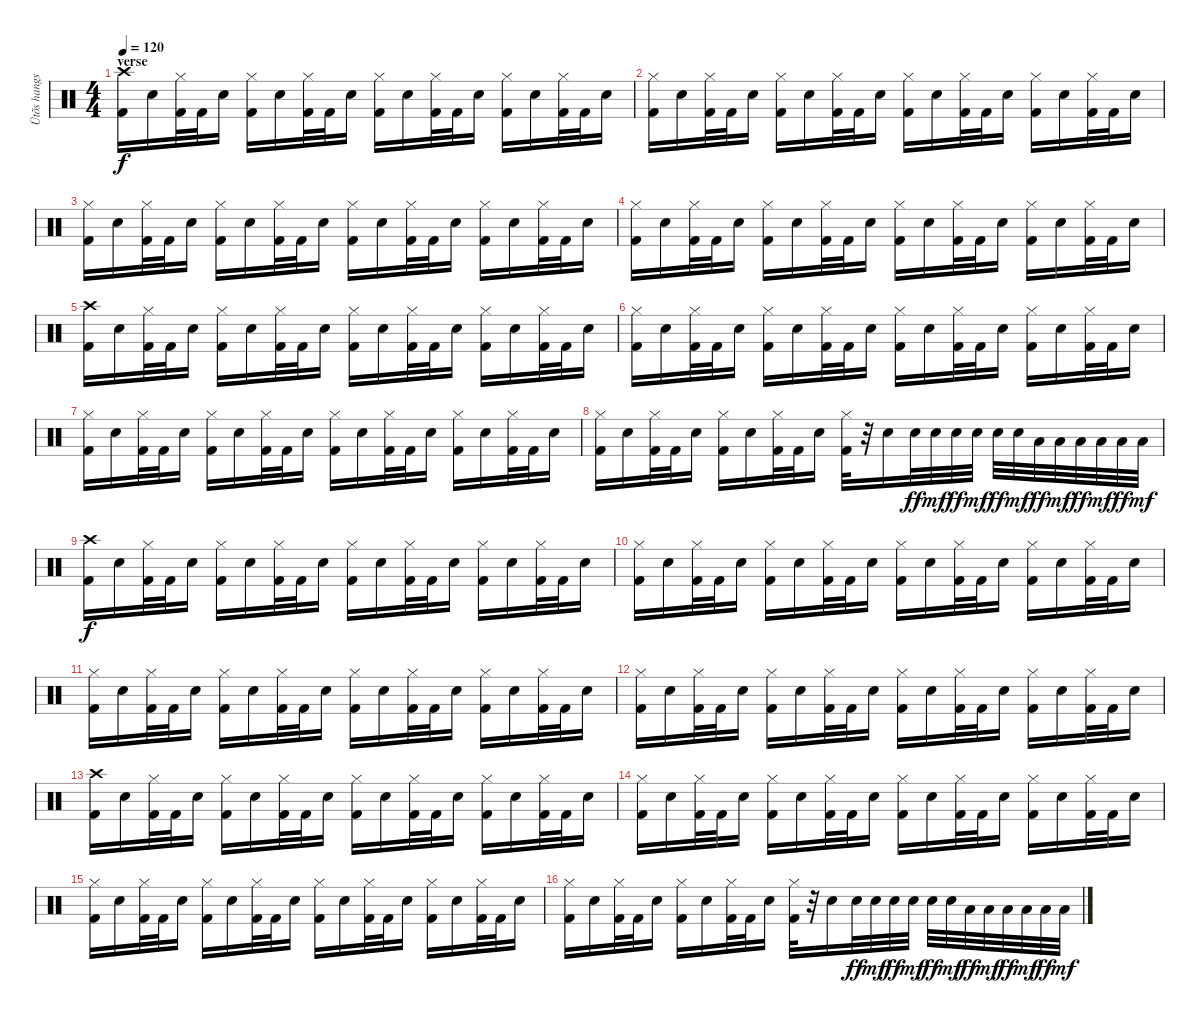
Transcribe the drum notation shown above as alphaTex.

\track ("Ütõs hangszer" "Ütõs hangs") {instrument percussion}
\staff {score}
\articulation defaults
\ts (4 4)
\section ("" "verse")
\tempo 120
\clef neutral
\ks c
("Crash high (hit)" "Kick (hit) 2").16{dy f} "Snare (hit) 2".16 ("Hi-Hat (closed)" "Kick (hit) 2").32 "Kick (hit) 2".32 "Snare (hit) 2".16 ("Hi-Hat (closed)" "Kick (hit) 2").16 "Snare (hit) 2".16 ("Hi-Hat (closed)" "Kick (hit) 2").32 "Kick (hit) 2".32 "Snare (hit) 2".16 ("Hi-Hat (closed)" "Kick (hit) 2").16 "Snare (hit) 2".16 ("Hi-Hat (closed)" "Kick (hit) 2").32 "Kick (hit) 2".32 "Snare (hit) 2".16 ("Hi-Hat (closed)" "Kick (hit) 2").16 "Snare (hit) 2".16 ("Hi-Hat (closed)" "Kick (hit) 2").32 "Kick (hit) 2".32 "Snare (hit) 2".16 |
("Hi-Hat (closed)" "Kick (hit) 2").16 "Snare (hit) 2".16 ("Hi-Hat (closed)" "Kick (hit) 2").32 "Kick (hit) 2".32 "Snare (hit) 2".16 ("Hi-Hat (closed)" "Kick (hit) 2").16 "Snare (hit) 2".16 ("Hi-Hat (closed)" "Kick (hit) 2").32 "Kick (hit) 2".32 "Snare (hit) 2".16 ("Hi-Hat (closed)" "Kick (hit) 2").16 "Snare (hit) 2".16 ("Hi-Hat (closed)" "Kick (hit) 2").32 "Kick (hit) 2".32 "Snare (hit) 2".16 ("Hi-Hat (closed)" "Kick (hit) 2").16 "Snare (hit) 2".16 ("Hi-Hat (closed)" "Kick (hit) 2").32 "Kick (hit) 2".32 "Snare (hit) 2".16 |
("Hi-Hat (closed)" "Kick (hit) 2").16 "Snare (hit) 2".16 ("Hi-Hat (closed)" "Kick (hit) 2").32 "Kick (hit) 2".32 "Snare (hit) 2".16 ("Hi-Hat (closed)" "Kick (hit) 2").16 "Snare (hit) 2".16 ("Hi-Hat (closed)" "Kick (hit) 2").32 "Kick (hit) 2".32 "Snare (hit) 2".16 ("Hi-Hat (closed)" "Kick (hit) 2").16 "Snare (hit) 2".16 ("Hi-Hat (closed)" "Kick (hit) 2").32 "Kick (hit) 2".32 "Snare (hit) 2".16 ("Hi-Hat (closed)" "Kick (hit) 2").16 "Snare (hit) 2".16 ("Hi-Hat (closed)" "Kick (hit) 2").32 "Kick (hit) 2".32 "Snare (hit) 2".16 |
("Hi-Hat (closed)" "Kick (hit) 2").16 "Snare (hit) 2".16 ("Hi-Hat (closed)" "Kick (hit) 2").32 "Kick (hit) 2".32 "Snare (hit) 2".16 ("Hi-Hat (closed)" "Kick (hit) 2").16 "Snare (hit) 2".16 ("Hi-Hat (closed)" "Kick (hit) 2").32 "Kick (hit) 2".32 "Snare (hit) 2".16 ("Hi-Hat (closed)" "Kick (hit) 2").16 "Snare (hit) 2".16 ("Hi-Hat (closed)" "Kick (hit) 2").32 "Kick (hit) 2".32 "Snare (hit) 2".16 ("Hi-Hat (closed)" "Kick (hit) 2").16 "Snare (hit) 2".16 ("Hi-Hat (closed)" "Kick (hit) 2").32 "Kick (hit) 2".32 "Snare (hit) 2".16 |
("Crash high (hit)" "Kick (hit) 2").16 "Snare (hit) 2".16 ("Hi-Hat (closed)" "Kick (hit) 2").32 "Kick (hit) 2".32 "Snare (hit) 2".16 ("Hi-Hat (closed)" "Kick (hit) 2").16 "Snare (hit) 2".16 ("Hi-Hat (closed)" "Kick (hit) 2").32 "Kick (hit) 2".32 "Snare (hit) 2".16 ("Hi-Hat (closed)" "Kick (hit) 2").16 "Snare (hit) 2".16 ("Hi-Hat (closed)" "Kick (hit) 2").32 "Kick (hit) 2".32 "Snare (hit) 2".16 ("Hi-Hat (closed)" "Kick (hit) 2").16 "Snare (hit) 2".16 ("Hi-Hat (closed)" "Kick (hit) 2").32 "Kick (hit) 2".32 "Snare (hit) 2".16 |
("Hi-Hat (closed)" "Kick (hit) 2").16 "Snare (hit) 2".16 ("Hi-Hat (closed)" "Kick (hit) 2").32 "Kick (hit) 2".32 "Snare (hit) 2".16 ("Hi-Hat (closed)" "Kick (hit) 2").16 "Snare (hit) 2".16 ("Hi-Hat (closed)" "Kick (hit) 2").32 "Kick (hit) 2".32 "Snare (hit) 2".16 ("Hi-Hat (closed)" "Kick (hit) 2").16 "Snare (hit) 2".16 ("Hi-Hat (closed)" "Kick (hit) 2").32 "Kick (hit) 2".32 "Snare (hit) 2".16 ("Hi-Hat (closed)" "Kick (hit) 2").16 "Snare (hit) 2".16 ("Hi-Hat (closed)" "Kick (hit) 2").32 "Kick (hit) 2".32 "Snare (hit) 2".16 |
("Hi-Hat (closed)" "Kick (hit) 2").16 "Snare (hit) 2".16 ("Hi-Hat (closed)" "Kick (hit) 2").32 "Kick (hit) 2".32 "Snare (hit) 2".16 ("Hi-Hat (closed)" "Kick (hit) 2").16 "Snare (hit) 2".16 ("Hi-Hat (closed)" "Kick (hit) 2").32 "Kick (hit) 2".32 "Snare (hit) 2".16 ("Hi-Hat (closed)" "Kick (hit) 2").16 "Snare (hit) 2".16 ("Hi-Hat (closed)" "Kick (hit) 2").32 "Kick (hit) 2".32 "Snare (hit) 2".16 ("Hi-Hat (closed)" "Kick (hit) 2").16 "Snare (hit) 2".16 ("Hi-Hat (closed)" "Kick (hit) 2").32 "Kick (hit) 2".32 "Snare (hit) 2".16 |
("Hi-Hat (closed)" "Kick (hit) 2").16 "Snare (hit) 2".16 ("Hi-Hat (closed)" "Kick (hit) 2").32 "Kick (hit) 2".32 "Snare (hit) 2".16 ("Hi-Hat (closed)" "Kick (hit) 2").16 "Snare (hit) 2".16 ("Hi-Hat (closed)" "Kick (hit) 2").32 "Kick (hit) 2".32 "Snare (hit) 2".16 ("Hi-Hat (closed)" "Kick (hit) 2").32 r.32 "Snare (hit) 2".16 "Snare (hit) 2".32{dy ff} "Snare (hit) 2".32{dy mf} "Snare (hit) 2".32{dy ff} "Snare (hit) 2".32{dy mf} "Snare (hit) 2".32{dy ff} "Snare (hit) 2".32{dy mf} "Low Tom (hit)".32{dy ff} "Low Tom (hit)".32{dy mf} "Low Tom (hit)".32{dy ff} "Low Tom (hit)".32{dy mf} "Low Tom (hit)".32{dy ff} "Low Tom (hit)".32{dy mf} |
("Crash high (hit)" "Kick (hit) 2").16{dy f} "Snare (hit) 2".16 ("Hi-Hat (closed)" "Kick (hit) 2").32 "Kick (hit) 2".32 "Snare (hit) 2".16 ("Hi-Hat (closed)" "Kick (hit) 2").16 "Snare (hit) 2".16 ("Hi-Hat (closed)" "Kick (hit) 2").32 "Kick (hit) 2".32 "Snare (hit) 2".16 ("Hi-Hat (closed)" "Kick (hit) 2").16 "Snare (hit) 2".16 ("Hi-Hat (closed)" "Kick (hit) 2").32 "Kick (hit) 2".32 "Snare (hit) 2".16 ("Hi-Hat (closed)" "Kick (hit) 2").16 "Snare (hit) 2".16 ("Hi-Hat (closed)" "Kick (hit) 2").32 "Kick (hit) 2".32 "Snare (hit) 2".16 |
("Hi-Hat (closed)" "Kick (hit) 2").16 "Snare (hit) 2".16 ("Hi-Hat (closed)" "Kick (hit) 2").32 "Kick (hit) 2".32 "Snare (hit) 2".16 ("Hi-Hat (closed)" "Kick (hit) 2").16 "Snare (hit) 2".16 ("Hi-Hat (closed)" "Kick (hit) 2").32 "Kick (hit) 2".32 "Snare (hit) 2".16 ("Hi-Hat (closed)" "Kick (hit) 2").16 "Snare (hit) 2".16 ("Hi-Hat (closed)" "Kick (hit) 2").32 "Kick (hit) 2".32 "Snare (hit) 2".16 ("Hi-Hat (closed)" "Kick (hit) 2").16 "Snare (hit) 2".16 ("Hi-Hat (closed)" "Kick (hit) 2").32 "Kick (hit) 2".32 "Snare (hit) 2".16 |
("Hi-Hat (closed)" "Kick (hit) 2").16 "Snare (hit) 2".16 ("Hi-Hat (closed)" "Kick (hit) 2").32 "Kick (hit) 2".32 "Snare (hit) 2".16 ("Hi-Hat (closed)" "Kick (hit) 2").16 "Snare (hit) 2".16 ("Hi-Hat (closed)" "Kick (hit) 2").32 "Kick (hit) 2".32 "Snare (hit) 2".16 ("Hi-Hat (closed)" "Kick (hit) 2").16 "Snare (hit) 2".16 ("Hi-Hat (closed)" "Kick (hit) 2").32 "Kick (hit) 2".32 "Snare (hit) 2".16 ("Hi-Hat (closed)" "Kick (hit) 2").16 "Snare (hit) 2".16 ("Hi-Hat (closed)" "Kick (hit) 2").32 "Kick (hit) 2".32 "Snare (hit) 2".16 |
("Hi-Hat (closed)" "Kick (hit) 2").16 "Snare (hit) 2".16 ("Hi-Hat (closed)" "Kick (hit) 2").32 "Kick (hit) 2".32 "Snare (hit) 2".16 ("Hi-Hat (closed)" "Kick (hit) 2").16 "Snare (hit) 2".16 ("Hi-Hat (closed)" "Kick (hit) 2").32 "Kick (hit) 2".32 "Snare (hit) 2".16 ("Hi-Hat (closed)" "Kick (hit) 2").16 "Snare (hit) 2".16 ("Hi-Hat (closed)" "Kick (hit) 2").32 "Kick (hit) 2".32 "Snare (hit) 2".16 ("Hi-Hat (closed)" "Kick (hit) 2").16 "Snare (hit) 2".16 ("Hi-Hat (closed)" "Kick (hit) 2").32 "Kick (hit) 2".32 "Snare (hit) 2".16 |
("Crash high (hit)" "Kick (hit) 2").16 "Snare (hit) 2".16 ("Hi-Hat (closed)" "Kick (hit) 2").32 "Kick (hit) 2".32 "Snare (hit) 2".16 ("Hi-Hat (closed)" "Kick (hit) 2").16 "Snare (hit) 2".16 ("Hi-Hat (closed)" "Kick (hit) 2").32 "Kick (hit) 2".32 "Snare (hit) 2".16 ("Hi-Hat (closed)" "Kick (hit) 2").16 "Snare (hit) 2".16 ("Hi-Hat (closed)" "Kick (hit) 2").32 "Kick (hit) 2".32 "Snare (hit) 2".16 ("Hi-Hat (closed)" "Kick (hit) 2").16 "Snare (hit) 2".16 ("Hi-Hat (closed)" "Kick (hit) 2").32 "Kick (hit) 2".32 "Snare (hit) 2".16 |
("Hi-Hat (closed)" "Kick (hit) 2").16 "Snare (hit) 2".16 ("Hi-Hat (closed)" "Kick (hit) 2").32 "Kick (hit) 2".32 "Snare (hit) 2".16 ("Hi-Hat (closed)" "Kick (hit) 2").16 "Snare (hit) 2".16 ("Hi-Hat (closed)" "Kick (hit) 2").32 "Kick (hit) 2".32 "Snare (hit) 2".16 ("Hi-Hat (closed)" "Kick (hit) 2").16 "Snare (hit) 2".16 ("Hi-Hat (closed)" "Kick (hit) 2").32 "Kick (hit) 2".32 "Snare (hit) 2".16 ("Hi-Hat (closed)" "Kick (hit) 2").16 "Snare (hit) 2".16 ("Hi-Hat (closed)" "Kick (hit) 2").32 "Kick (hit) 2".32 "Snare (hit) 2".16 |
("Hi-Hat (closed)" "Kick (hit) 2").16 "Snare (hit) 2".16 ("Hi-Hat (closed)" "Kick (hit) 2").32 "Kick (hit) 2".32 "Snare (hit) 2".16 ("Hi-Hat (closed)" "Kick (hit) 2").16 "Snare (hit) 2".16 ("Hi-Hat (closed)" "Kick (hit) 2").32 "Kick (hit) 2".32 "Snare (hit) 2".16 ("Hi-Hat (closed)" "Kick (hit) 2").16 "Snare (hit) 2".16 ("Hi-Hat (closed)" "Kick (hit) 2").32 "Kick (hit) 2".32 "Snare (hit) 2".16 ("Hi-Hat (closed)" "Kick (hit) 2").16 "Snare (hit) 2".16 ("Hi-Hat (closed)" "Kick (hit) 2").32 "Kick (hit) 2".32 "Snare (hit) 2".16 |
("Hi-Hat (closed)" "Kick (hit) 2").16 "Snare (hit) 2".16 ("Hi-Hat (closed)" "Kick (hit) 2").32 "Kick (hit) 2".32 "Snare (hit) 2".16 ("Hi-Hat (closed)" "Kick (hit) 2").16 "Snare (hit) 2".16 ("Hi-Hat (closed)" "Kick (hit) 2").32 "Kick (hit) 2".32 "Snare (hit) 2".16 ("Hi-Hat (closed)" "Kick (hit) 2").32 r.32 "Snare (hit) 2".16 "Snare (hit) 2".32{dy ff} "Snare (hit) 2".32{dy mf} "Snare (hit) 2".32{dy ff} "Snare (hit) 2".32{dy mf} "Snare (hit) 2".32{dy ff} "Snare (hit) 2".32{dy mf} "Low Tom (hit)".32{dy ff} "Low Tom (hit)".32{dy mf} "Low Tom (hit)".32{dy ff} "Low Tom (hit)".32{dy mf} "Low Tom (hit)".32{dy ff} "Low Tom (hit)".32{dy mf}
